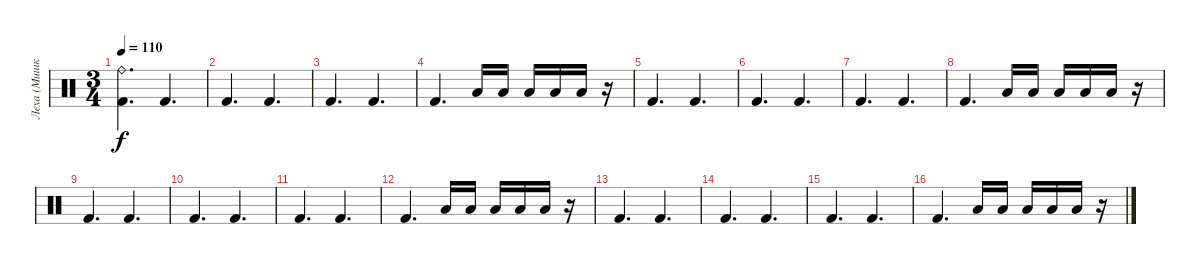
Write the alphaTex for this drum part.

\track ("Леха (Мишка Гами)" "Леха (Мишк") {instrument percussion}
\staff {score}
\articulation defaults
\ts (3 4)
\tempo 110
\clef neutral
\ks c
("Ride (bell)" "Kick (hit) 2").4{d dy f} "Kick (hit) 2".4{d} |
"Kick (hit) 2".4{d} "Kick (hit) 2".4{d} |
"Kick (hit) 2".4{d} "Kick (hit) 2".4{d} |
"Kick (hit) 2".4{d} "Low Tom (hit)".16 "Low Tom (hit)".16 "Low Tom (hit)".16 "Low Tom (hit)".16 "Low Tom (hit)".16 r.16 |
"Kick (hit) 2".4{d} "Kick (hit) 2".4{d} |
"Kick (hit) 2".4{d} "Kick (hit) 2".4{d} |
"Kick (hit) 2".4{d} "Kick (hit) 2".4{d} |
"Kick (hit) 2".4{d} "Low Tom (hit)".16 "Low Tom (hit)".16 "Low Tom (hit)".16 "Low Tom (hit)".16 "Low Tom (hit)".16 r.16 |
"Kick (hit) 2".4{d} "Kick (hit) 2".4{d} |
"Kick (hit) 2".4{d} "Kick (hit) 2".4{d} |
"Kick (hit) 2".4{d} "Kick (hit) 2".4{d} |
"Kick (hit) 2".4{d} "Low Tom (hit)".16 "Low Tom (hit)".16 "Low Tom (hit)".16 "Low Tom (hit)".16 "Low Tom (hit)".16 r.16 |
"Kick (hit) 2".4{d} "Kick (hit) 2".4{d} |
"Kick (hit) 2".4{d} "Kick (hit) 2".4{d} |
"Kick (hit) 2".4{d} "Kick (hit) 2".4{d} |
"Kick (hit) 2".4{d} "Low Tom (hit)".16 "Low Tom (hit)".16 "Low Tom (hit)".16 "Low Tom (hit)".16 "Low Tom (hit)".16 r.16
